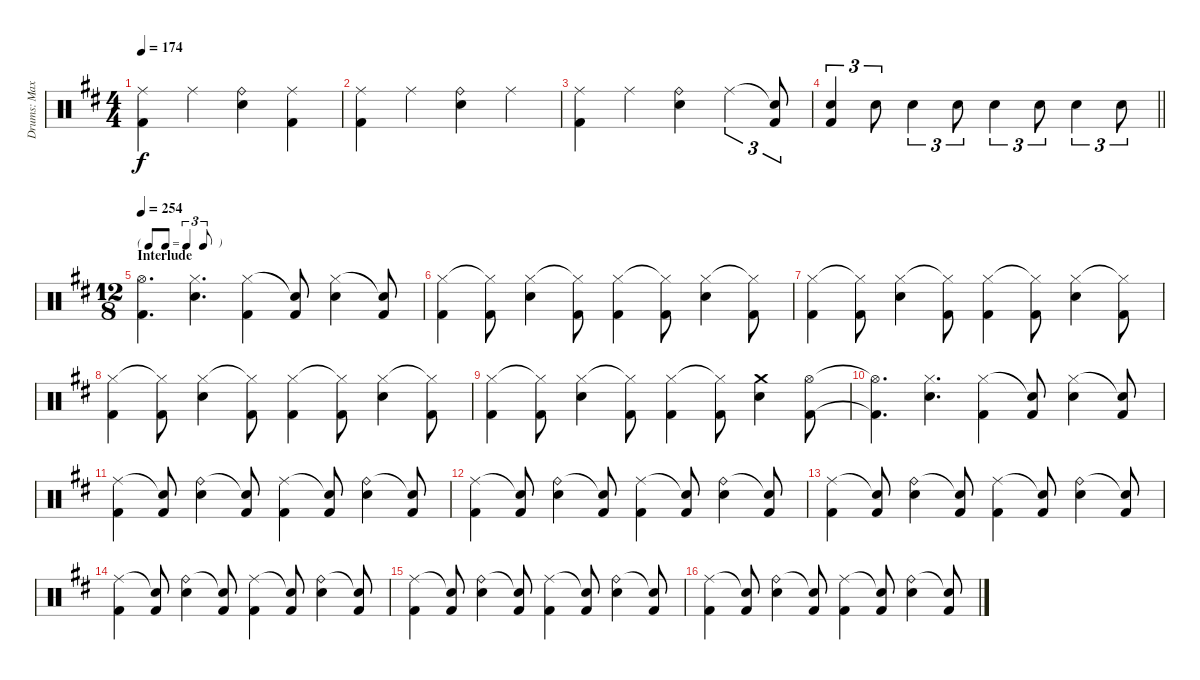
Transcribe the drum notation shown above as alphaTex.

\track ("Drums: Max" "Drums: Max") {instrument percussion}
\staff {score}
\articulation defaults
\ts (4 4)
\tempo 174
\clef neutral
\ks d
("Ride (middle)" "Kick (hit) 2").4{dy f} "Ride (middle)".4 ("Ride (bell)" "Electric Snare (hit)").4 ("Ride (middle)" "Kick (hit) 2").4 |
("Ride (middle)" "Kick (hit) 2").4 "Ride (middle)".4 ("Ride (bell)" "Electric Snare (hit)").4 "Ride (middle)".4 |
("Ride (middle)" "Kick (hit) 2").4 "Ride (middle)".4 ("Ride (bell)" "Electric Snare (hit)").4 "Ride (middle)".4{tu (3 2)} ("Snare (hit)"{t} "Kick (hit) 2").8{tu (3 2)} |
\barLineRight lightlight
("Electric Snare (hit)" "Kick (hit) 2").4{tu (3 2)} "Electric Snare (hit)".8{tu (3 2)} "Electric Snare (hit)".4{tu (3 2)} "Electric Snare (hit)".8{tu (3 2)} "Electric Snare (hit)".4{tu (3 2)} "Electric Snare (hit)".8{tu (3 2)} "Electric Snare (hit)".4{tu (3 2)} "Electric Snare (hit)".8{tu (3 2)} |
\ts (12 8)
\tf triplet8th
\section ("" "Interlude")
\tempo 254
("Hi-Hat (open)" "Kick (hit) 2").4{d} ("Hi-Hat (closed)" "Electric Snare (hit)").4{d} ("Hi-Hat (closed)" "Kick (hit) 2").4 ("Snare (hit)"{t} "Kick (hit) 2").8 ("Hi-Hat (closed)" "Electric Snare (hit)").4 ("Snare (hit)"{t} "Kick (hit) 2").8 |
("Hi-Hat (closed)" "Kick (hit) 2").4 ("Hi-Hat (closed)"{t} "Kick (hit) 2").8 ("Hi-Hat (closed)" "Electric Snare (hit)").4 ("Hi-Hat (closed)"{t} "Kick (hit) 2").8 ("Hi-Hat (closed)" "Kick (hit) 2").4 ("Hi-Hat (closed)"{t} "Kick (hit) 2").8 ("Hi-Hat (closed)" "Electric Snare (hit)").4 ("Hi-Hat (closed)"{t} "Kick (hit) 2").8 |
("Hi-Hat (closed)" "Kick (hit) 2").4 ("Hi-Hat (closed)"{t} "Kick (hit) 2").8 ("Hi-Hat (closed)" "Electric Snare (hit)").4 ("Hi-Hat (closed)"{t} "Kick (hit) 2").8 ("Hi-Hat (closed)" "Kick (hit) 2").4 ("Hi-Hat (closed)"{t} "Kick (hit) 2").8 ("Hi-Hat (closed)" "Electric Snare (hit)").4 ("Hi-Hat (closed)"{t} "Kick (hit) 2").8 |
("Hi-Hat (closed)" "Kick (hit) 2").4 ("Hi-Hat (closed)"{t} "Kick (hit) 2").8 ("Hi-Hat (closed)" "Electric Snare (hit)").4 ("Hi-Hat (closed)"{t} "Kick (hit) 2").8 ("Hi-Hat (closed)" "Kick (hit) 2").4 ("Hi-Hat (closed)"{t} "Kick (hit) 2").8 ("Hi-Hat (closed)" "Electric Snare (hit)").4 ("Hi-Hat (closed)"{t} "Kick (hit) 2").8 |
("Hi-Hat (closed)" "Kick (hit) 2").4 ("Hi-Hat (closed)"{t} "Kick (hit) 2").8 ("Hi-Hat (closed)" "Electric Snare (hit)").4 ("Hi-Hat (closed)"{t} "Kick (hit) 2").8 ("Hi-Hat (closed)" "Kick (hit) 2").4 ("Hi-Hat (closed)"{t} "Kick (hit) 2").8 ("Crash medium (hit)" "Electric Snare (hit)").4 ("Hi-Hat (open)" "Kick (hit) 2").8 |
("Hi-Hat (open)"{t} "Kick (hit) 2"{t}).4{d} ("Hi-Hat (closed)" "Electric Snare (hit)").4{d} ("Hi-Hat (closed)" "Kick (hit) 2").4 ("Snare (hit)"{t} "Kick (hit) 2").8 ("Hi-Hat (closed)" "Electric Snare (hit)").4 ("Snare (hit)"{t} "Kick (hit) 2").8 |
("Ride (middle)" "Kick (hit) 2").4 ("Snare (hit)"{t} "Kick (hit) 2").8 ("Ride (bell)" "Electric Snare (hit)").4 ("Snare (hit)"{t} "Kick (hit) 2").8 ("Ride (middle)" "Kick (hit) 2").4 ("Snare (hit)"{t} "Kick (hit) 2").8 ("Ride (bell)" "Electric Snare (hit)").4 ("Snare (hit)"{t} "Kick (hit) 2").8 |
("Ride (middle)" "Kick (hit) 2").4 ("Snare (hit)"{t} "Kick (hit) 2").8 ("Ride (bell)" "Electric Snare (hit)").4 ("Snare (hit)"{t} "Kick (hit) 2").8 ("Ride (middle)" "Kick (hit) 2").4 ("Snare (hit)"{t} "Kick (hit) 2").8 ("Ride (bell)" "Electric Snare (hit)").4 ("Snare (hit)"{t} "Kick (hit) 2").8 |
("Ride (middle)" "Kick (hit) 2").4 ("Snare (hit)"{t} "Kick (hit) 2").8 ("Ride (bell)" "Electric Snare (hit)").4 ("Snare (hit)"{t} "Kick (hit) 2").8 ("Ride (middle)" "Kick (hit) 2").4 ("Snare (hit)"{t} "Kick (hit) 2").8 ("Ride (bell)" "Electric Snare (hit)").4 ("Snare (hit)"{t} "Kick (hit) 2").8 |
("Ride (middle)" "Kick (hit) 2").4 ("Snare (hit)"{t} "Kick (hit) 2").8 ("Ride (bell)" "Electric Snare (hit)").4 ("Snare (hit)"{t} "Kick (hit) 2").8 ("Ride (middle)" "Kick (hit) 2").4 ("Snare (hit)"{t} "Kick (hit) 2").8 ("Ride (bell)" "Electric Snare (hit)").4 ("Snare (hit)"{t} "Kick (hit) 2").8 |
("Ride (middle)" "Kick (hit) 2").4 ("Snare (hit)"{t} "Kick (hit) 2").8 ("Ride (bell)" "Electric Snare (hit)").4 ("Snare (hit)"{t} "Kick (hit) 2").8 ("Ride (middle)" "Kick (hit) 2").4 ("Snare (hit)"{t} "Kick (hit) 2").8 ("Ride (bell)" "Electric Snare (hit)").4 ("Snare (hit)"{t} "Kick (hit) 2").8 |
("Ride (middle)" "Kick (hit) 2").4 ("Snare (hit)"{t} "Kick (hit) 2").8 ("Ride (bell)" "Electric Snare (hit)").4 ("Snare (hit)"{t} "Kick (hit) 2").8 ("Ride (middle)" "Kick (hit) 2").4 ("Snare (hit)"{t} "Kick (hit) 2").8 ("Ride (bell)" "Electric Snare (hit)").4 ("Snare (hit)"{t} "Kick (hit) 2").8
